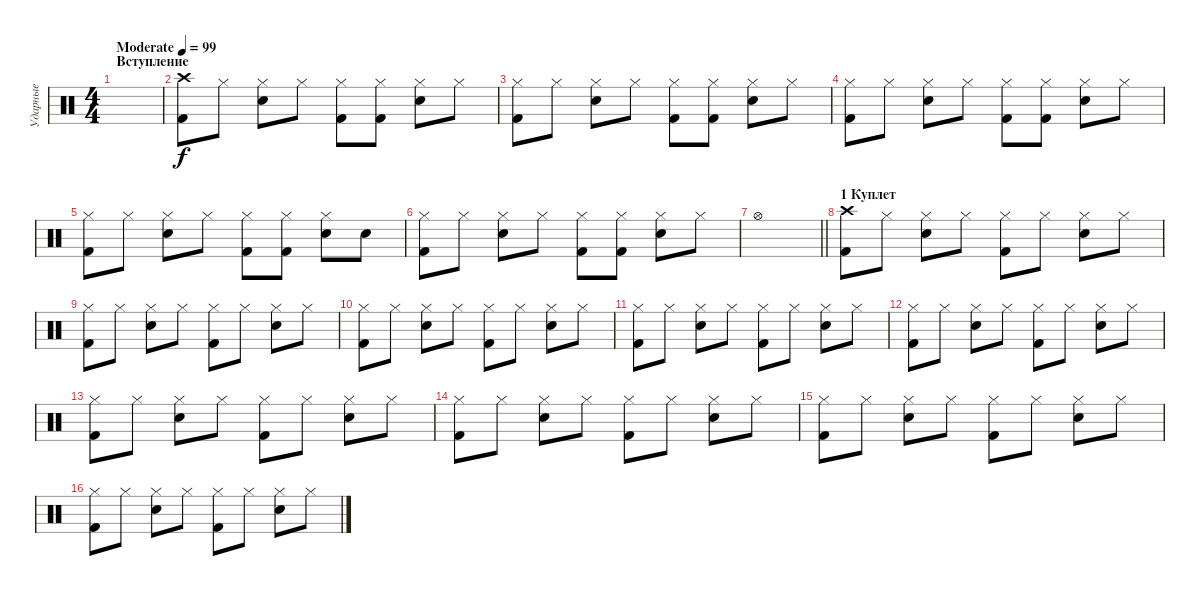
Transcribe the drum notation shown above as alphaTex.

\track ("Ударные" "Ударные") {instrument percussion}
\staff
\articulation defaults
\ts (4 4)
\section ("" "Вступление")
\tempo (99 "Moderate")
\clef neutral
\ks c
|
("Crash high (hit)" "Kick (hit) 2").8 "Hi-Hat (closed)".8 ("Hi-Hat (closed)" "Electric Snare (hit)").8 "Hi-Hat (closed)".8 ("Hi-Hat (closed)" "Kick (hit) 2").8 ("Hi-Hat (closed)" "Kick (hit) 2").8 ("Hi-Hat (closed)" "Electric Snare (hit)").8 "Hi-Hat (closed)".8 |
("Hi-Hat (closed)" "Kick (hit) 2").8 "Hi-Hat (closed)".8 ("Hi-Hat (closed)" "Electric Snare (hit)").8 "Hi-Hat (closed)".8 ("Hi-Hat (closed)" "Kick (hit) 2").8 ("Hi-Hat (closed)" "Kick (hit) 2").8 ("Hi-Hat (closed)" "Electric Snare (hit)").8 "Hi-Hat (closed)".8 |
("Hi-Hat (closed)" "Kick (hit) 2").8 "Hi-Hat (closed)".8 ("Hi-Hat (closed)" "Electric Snare (hit)").8 "Hi-Hat (closed)".8 ("Hi-Hat (closed)" "Kick (hit) 2").8 ("Hi-Hat (closed)" "Kick (hit) 2").8 ("Hi-Hat (closed)" "Electric Snare (hit)").8 "Hi-Hat (closed)".8 |
("Hi-Hat (closed)" "Kick (hit) 2").8 "Hi-Hat (closed)".8 ("Hi-Hat (closed)" "Electric Snare (hit)").8 "Hi-Hat (closed)".8 ("Hi-Hat (closed)" "Kick (hit) 2").8 ("Hi-Hat (closed)" "Kick (hit) 2").8 ("Hi-Hat (closed)" "Electric Snare (hit)").8 "Electric Snare (hit)".8 |
("Hi-Hat (closed)" "Kick (hit) 2").8 "Hi-Hat (closed)".8 ("Hi-Hat (closed)" "Electric Snare (hit)").8 "Hi-Hat (closed)".8 ("Hi-Hat (closed)" "Kick (hit) 2").8 ("Hi-Hat (closed)" "Kick (hit) 2").8 ("Hi-Hat (closed)" "Electric Snare (hit)").8 "Hi-Hat (closed)".8 |
\barLineRight lightlight "Hi-Hat (open)".1
|
\section ("" "1 Куплет")
("Crash high (hit)" "Kick (hit) 2").8 "Hi-Hat (closed)".8 ("Hi-Hat (closed)" "Electric Snare (hit)").8 "Hi-Hat (closed)".8 ("Hi-Hat (closed)" "Kick (hit) 2").8 "Hi-Hat (closed)".8 ("Hi-Hat (closed)" "Electric Snare (hit)").8 "Hi-Hat (closed)".8 |
("Hi-Hat (closed)" "Kick (hit) 2").8 "Hi-Hat (closed)".8 ("Hi-Hat (closed)" "Electric Snare (hit)").8 "Hi-Hat (closed)".8 ("Hi-Hat (closed)" "Kick (hit) 2").8 "Hi-Hat (closed)".8 ("Hi-Hat (closed)" "Electric Snare (hit)").8 "Hi-Hat (closed)".8 |
("Hi-Hat (closed)" "Kick (hit) 2").8 "Hi-Hat (closed)".8 ("Hi-Hat (closed)" "Electric Snare (hit)").8 "Hi-Hat (closed)".8 ("Hi-Hat (closed)" "Kick (hit) 2").8 "Hi-Hat (closed)".8 ("Hi-Hat (closed)" "Electric Snare (hit)").8 "Hi-Hat (closed)".8 |
("Hi-Hat (closed)" "Kick (hit) 2").8 "Hi-Hat (closed)".8 ("Hi-Hat (closed)" "Electric Snare (hit)").8 "Hi-Hat (closed)".8 ("Hi-Hat (closed)" "Kick (hit) 2").8 "Hi-Hat (closed)".8 ("Hi-Hat (closed)" "Electric Snare (hit)").8 "Hi-Hat (closed)".8 |
("Hi-Hat (closed)" "Kick (hit) 2").8 "Hi-Hat (closed)".8 ("Hi-Hat (closed)" "Electric Snare (hit)").8 "Hi-Hat (closed)".8 ("Hi-Hat (closed)" "Kick (hit) 2").8 "Hi-Hat (closed)".8 ("Hi-Hat (closed)" "Electric Snare (hit)").8 "Hi-Hat (closed)".8 |
("Hi-Hat (closed)" "Kick (hit) 2").8 "Hi-Hat (closed)".8 ("Hi-Hat (closed)" "Electric Snare (hit)").8 "Hi-Hat (closed)".8 ("Hi-Hat (closed)" "Kick (hit) 2").8 "Hi-Hat (closed)".8 ("Hi-Hat (closed)" "Electric Snare (hit)").8 "Hi-Hat (closed)".8 |
("Hi-Hat (closed)" "Kick (hit) 2").8 "Hi-Hat (closed)".8 ("Hi-Hat (closed)" "Electric Snare (hit)").8 "Hi-Hat (closed)".8 ("Hi-Hat (closed)" "Kick (hit) 2").8 "Hi-Hat (closed)".8 ("Hi-Hat (closed)" "Electric Snare (hit)").8 "Hi-Hat (closed)".8 |
("Hi-Hat (closed)" "Kick (hit) 2").8 "Hi-Hat (closed)".8 ("Hi-Hat (closed)" "Electric Snare (hit)").8 "Hi-Hat (closed)".8 ("Hi-Hat (closed)" "Kick (hit) 2").8 "Hi-Hat (closed)".8 ("Hi-Hat (closed)" "Electric Snare (hit)").8 "Hi-Hat (closed)".8 |
("Hi-Hat (closed)" "Kick (hit) 2").8 "Hi-Hat (closed)".8 ("Hi-Hat (closed)" "Electric Snare (hit)").8 "Hi-Hat (closed)".8 ("Hi-Hat (closed)" "Kick (hit) 2").8 "Hi-Hat (closed)".8 ("Hi-Hat (closed)" "Electric Snare (hit)").8 "Hi-Hat (closed)".8
